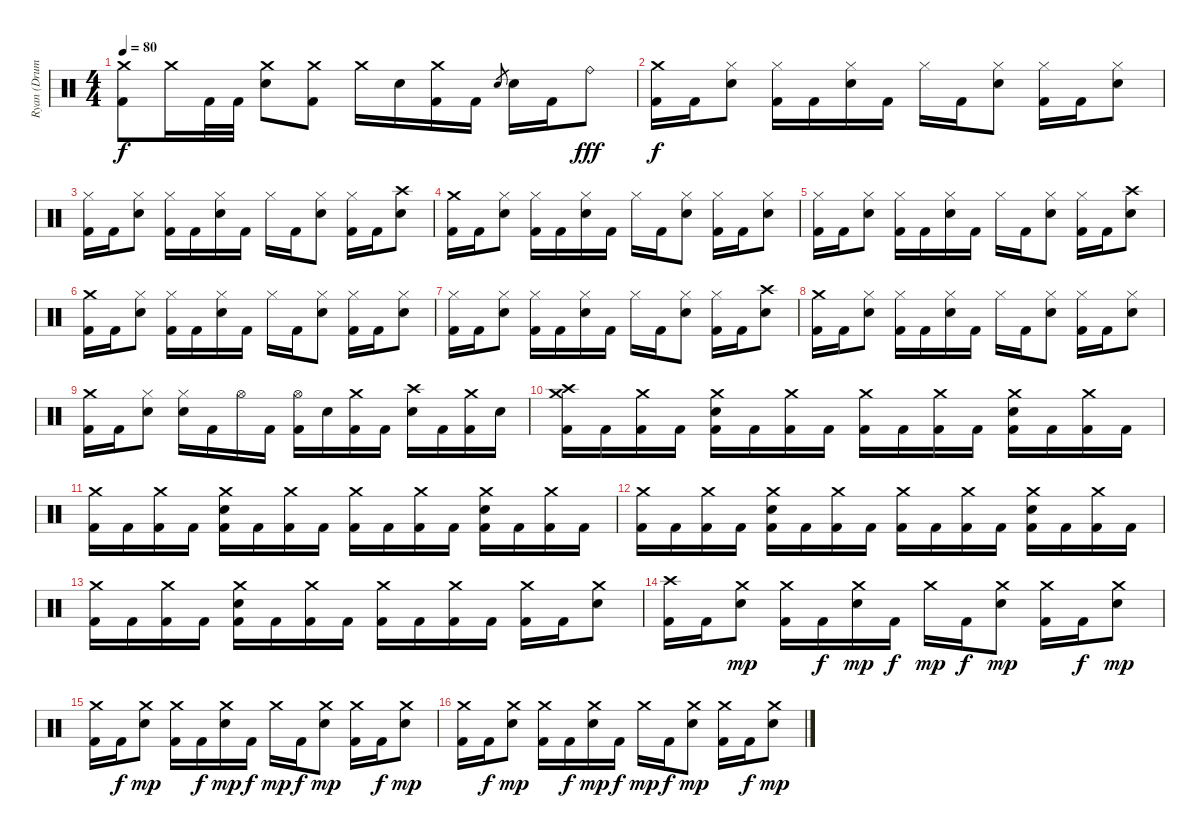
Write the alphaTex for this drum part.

\track ("Ryan (Drums)" "Ryan (Drum") {instrument percussion}
\staff {score}
\articulation defaults
\ts (4 4)
\tempo 80
\clef neutral
\ks c
("Crash medium (hit)" "Kick (hit) 2").8{dy f} "Crash medium (hit)".16 "Kick (hit) 2".32 "Kick (hit) 2".32 ("Crash medium (hit)" "Electric Snare (hit)").8 ("Crash medium (hit)" "Kick (hit) 2").8 "Crash medium (hit)".16 "Electric Snare (hit)".16 ("Crash medium (hit)" "Kick (hit) 2").16 "Kick (hit) 2".16 "Electric Snare (hit)".8{gr} "Electric Snare (hit)".16 "Kick (hit) 2".16 "Ride (bell)".8{dy fff} |
("Crash medium (hit)" "Kick (hit) 2").16{dy f} "Kick (hit) 2".16 ("Hi-Hat (closed)" "Electric Snare (hit)").8 ("Hi-Hat (closed)" "Kick (hit) 2").16 "Kick (hit) 2".16 ("Hi-Hat (closed)" "Electric Snare (hit)").16 "Kick (hit) 2".16 "Hi-Hat (closed)".16 "Kick (hit) 2".16 ("Hi-Hat (closed)" "Electric Snare (hit)").8 ("Hi-Hat (closed)" "Kick (hit) 2").16 "Kick (hit) 2".16 ("Hi-Hat (closed)" "Electric Snare (hit)").8 |
("Hi-Hat (closed)" "Kick (hit) 2").16 "Kick (hit) 2".16 ("Hi-Hat (closed)" "Electric Snare (hit)").8 ("Hi-Hat (closed)" "Kick (hit) 2").16 "Kick (hit) 2".16 ("Hi-Hat (closed)" "Electric Snare (hit)").16 "Kick (hit) 2".16 "Hi-Hat (closed)".16 "Kick (hit) 2".16 ("Hi-Hat (closed)" "Electric Snare (hit)").8 ("Hi-Hat (closed)" "Kick (hit) 2").16 "Kick (hit) 2".16 ("Crash high (hit)" "Electric Snare (hit)").8 |
("Crash medium (hit)" "Kick (hit) 2").16 "Kick (hit) 2".16 ("Hi-Hat (closed)" "Electric Snare (hit)").8 ("Hi-Hat (closed)" "Kick (hit) 2").16 "Kick (hit) 2".16 ("Hi-Hat (closed)" "Electric Snare (hit)").16 "Kick (hit) 2".16 "Hi-Hat (closed)".16 "Kick (hit) 2".16 ("Hi-Hat (closed)" "Electric Snare (hit)").8 ("Hi-Hat (closed)" "Kick (hit) 2").16 "Kick (hit) 2".16 ("Hi-Hat (closed)" "Electric Snare (hit)").8 |
("Hi-Hat (closed)" "Kick (hit) 2").16 "Kick (hit) 2".16 ("Hi-Hat (closed)" "Electric Snare (hit)").8 ("Hi-Hat (closed)" "Kick (hit) 2").16 "Kick (hit) 2".16 ("Hi-Hat (closed)" "Electric Snare (hit)").16 "Kick (hit) 2".16 "Hi-Hat (closed)".16 "Kick (hit) 2".16 ("Hi-Hat (closed)" "Electric Snare (hit)").8 ("Hi-Hat (closed)" "Kick (hit) 2").16 "Kick (hit) 2".16 ("Crash high (hit)" "Electric Snare (hit)").8 |
("Crash medium (hit)" "Kick (hit) 2").16 "Kick (hit) 2".16 ("Hi-Hat (closed)" "Electric Snare (hit)").8 ("Hi-Hat (closed)" "Kick (hit) 2").16 "Kick (hit) 2".16 ("Hi-Hat (closed)" "Electric Snare (hit)").16 "Kick (hit) 2".16 "Hi-Hat (closed)".16 "Kick (hit) 2".16 ("Hi-Hat (closed)" "Electric Snare (hit)").8 ("Hi-Hat (closed)" "Kick (hit) 2").16 "Kick (hit) 2".16 ("Hi-Hat (closed)" "Electric Snare (hit)").8 |
("Hi-Hat (closed)" "Kick (hit) 2").16 "Kick (hit) 2".16 ("Hi-Hat (closed)" "Electric Snare (hit)").8 ("Hi-Hat (closed)" "Kick (hit) 2").16 "Kick (hit) 2".16 ("Hi-Hat (closed)" "Electric Snare (hit)").16 "Kick (hit) 2".16 "Hi-Hat (closed)".16 "Kick (hit) 2".16 ("Hi-Hat (closed)" "Electric Snare (hit)").8 ("Hi-Hat (closed)" "Kick (hit) 2").16 "Kick (hit) 2".16 ("Crash high (hit)" "Electric Snare (hit)").8 |
("Crash medium (hit)" "Kick (hit) 2").16 "Kick (hit) 2".16 ("Hi-Hat (closed)" "Electric Snare (hit)").8 ("Hi-Hat (closed)" "Kick (hit) 2").16 "Kick (hit) 2".16 ("Hi-Hat (closed)" "Electric Snare (hit)").16 "Kick (hit) 2".16 "Hi-Hat (closed)".16 "Kick (hit) 2".16 ("Hi-Hat (closed)" "Electric Snare (hit)").8 ("Hi-Hat (closed)" "Kick (hit) 2").16 "Kick (hit) 2".16 ("Hi-Hat (closed)" "Electric Snare (hit)").8 |
("Crash medium (hit)" "Kick (hit) 2").16 "Kick (hit) 2".16 ("Hi-Hat (closed)" "Electric Snare (hit)").8 ("Hi-Hat (closed)" "Electric Snare (hit)").16 "Kick (hit) 2".16 "Hi-Hat (open)".16 "Kick (hit) 2".16 ("Hi-Hat (open)" "Kick (hit) 2").16 "Electric Snare (hit)".16 ("Crash medium (hit)" "Kick (hit) 2").16 "Kick (hit) 2".16 ("Crash high (hit)" "Electric Snare (hit)").16 "Kick (hit) 2".16 ("Crash medium (hit)" "Kick (hit) 2").16 "Electric Snare (hit)".16 |
("Crash medium (hit)" "Crash high (hit)" "Kick (hit) 2").16 "Kick (hit) 2".16 ("Crash medium (hit)" "Kick (hit) 2").16 "Kick (hit) 2".16 ("Crash medium (hit)" "Electric Snare (hit)" "Kick (hit) 2").16 "Kick (hit) 2".16 ("Crash medium (hit)" "Kick (hit) 2").16 "Kick (hit) 2".16 ("Crash medium (hit)" "Kick (hit) 2").16 "Kick (hit) 2".16 ("Crash medium (hit)" "Kick (hit) 2").16 "Kick (hit) 2".16 ("Crash medium (hit)" "Electric Snare (hit)" "Kick (hit) 2").16 "Kick (hit) 2".16 ("Crash medium (hit)" "Kick (hit) 2").16 "Kick (hit) 2".16 |
("Crash medium (hit)" "Kick (hit) 2").16 "Kick (hit) 2".16 ("Crash medium (hit)" "Kick (hit) 2").16 "Kick (hit) 2".16 ("Crash medium (hit)" "Electric Snare (hit)" "Kick (hit) 2").16 "Kick (hit) 2".16 ("Crash medium (hit)" "Kick (hit) 2").16 "Kick (hit) 2".16 ("Crash medium (hit)" "Kick (hit) 2").16 "Kick (hit) 2".16 ("Crash medium (hit)" "Kick (hit) 2").16 "Kick (hit) 2".16 ("Crash medium (hit)" "Electric Snare (hit)" "Kick (hit) 2").16 "Kick (hit) 2".16 ("Crash medium (hit)" "Kick (hit) 2").16 "Kick (hit) 2".16 |
("Crash medium (hit)" "Kick (hit) 2").16 "Kick (hit) 2".16 ("Crash medium (hit)" "Kick (hit) 2").16 "Kick (hit) 2".16 ("Crash medium (hit)" "Electric Snare (hit)" "Kick (hit) 2").16 "Kick (hit) 2".16 ("Crash medium (hit)" "Kick (hit) 2").16 "Kick (hit) 2".16 ("Crash medium (hit)" "Kick (hit) 2").16 "Kick (hit) 2".16 ("Crash medium (hit)" "Kick (hit) 2").16 "Kick (hit) 2".16 ("Crash medium (hit)" "Electric Snare (hit)" "Kick (hit) 2").16 "Kick (hit) 2".16 ("Crash medium (hit)" "Kick (hit) 2").16 "Kick (hit) 2".16 |
("Crash medium (hit)" "Kick (hit) 2").16 "Kick (hit) 2".16 ("Crash medium (hit)" "Kick (hit) 2").16 "Kick (hit) 2".16 ("Crash medium (hit)" "Electric Snare (hit)" "Kick (hit) 2").16 "Kick (hit) 2".16 ("Crash medium (hit)" "Kick (hit) 2").16 "Kick (hit) 2".16 ("Crash medium (hit)" "Kick (hit) 2").16 "Kick (hit) 2".16 ("Crash medium (hit)" "Kick (hit) 2").16 "Kick (hit) 2".16 ("Crash medium (hit)" "Kick (hit) 2").16 "Kick (hit) 2".16 ("Crash medium (hit)" "Electric Snare (hit)").8 |
("Crash high (hit)" "Kick (hit) 2").16 "Kick (hit) 2".16 ("Crash medium (hit)" "Electric Snare (hit)").8{dy mp} ("Crash medium (hit)" "Kick (hit) 2").16 "Kick (hit) 2".16{dy f} ("Crash medium (hit)" "Electric Snare (hit)").16{dy mp} "Kick (hit) 2".16{dy f} "Crash medium (hit)".16{dy mp} "Kick (hit) 2".16{dy f} ("Crash medium (hit)" "Electric Snare (hit)").8{dy mp} ("Crash medium (hit)" "Kick (hit) 2").16 "Kick (hit) 2".16{dy f} ("Crash medium (hit)" "Electric Snare (hit)").8{dy mp} |
("Crash medium (hit)" "Kick (hit) 2").16 "Kick (hit) 2".16{dy f} ("Crash medium (hit)" "Electric Snare (hit)").8{dy mp} ("Crash medium (hit)" "Kick (hit) 2").16 "Kick (hit) 2".16{dy f} ("Crash medium (hit)" "Electric Snare (hit)").16{dy mp} "Kick (hit) 2".16{dy f} "Crash medium (hit)".16{dy mp} "Kick (hit) 2".16{dy f} ("Crash medium (hit)" "Electric Snare (hit)").8{dy mp} ("Crash medium (hit)" "Kick (hit) 2").16 "Kick (hit) 2".16{dy f} ("Crash medium (hit)" "Electric Snare (hit)").8{dy mp} |
("Crash medium (hit)" "Kick (hit) 2").16 "Kick (hit) 2".16{dy f} ("Crash medium (hit)" "Electric Snare (hit)").8{dy mp} ("Crash medium (hit)" "Kick (hit) 2").16 "Kick (hit) 2".16{dy f} ("Crash medium (hit)" "Electric Snare (hit)").16{dy mp} "Kick (hit) 2".16{dy f} "Crash medium (hit)".16{dy mp} "Kick (hit) 2".16{dy f} ("Crash medium (hit)" "Electric Snare (hit)").8{dy mp} ("Crash medium (hit)" "Kick (hit) 2").16 "Kick (hit) 2".16{dy f} ("Crash medium (hit)" "Electric Snare (hit)").8{dy mp}
